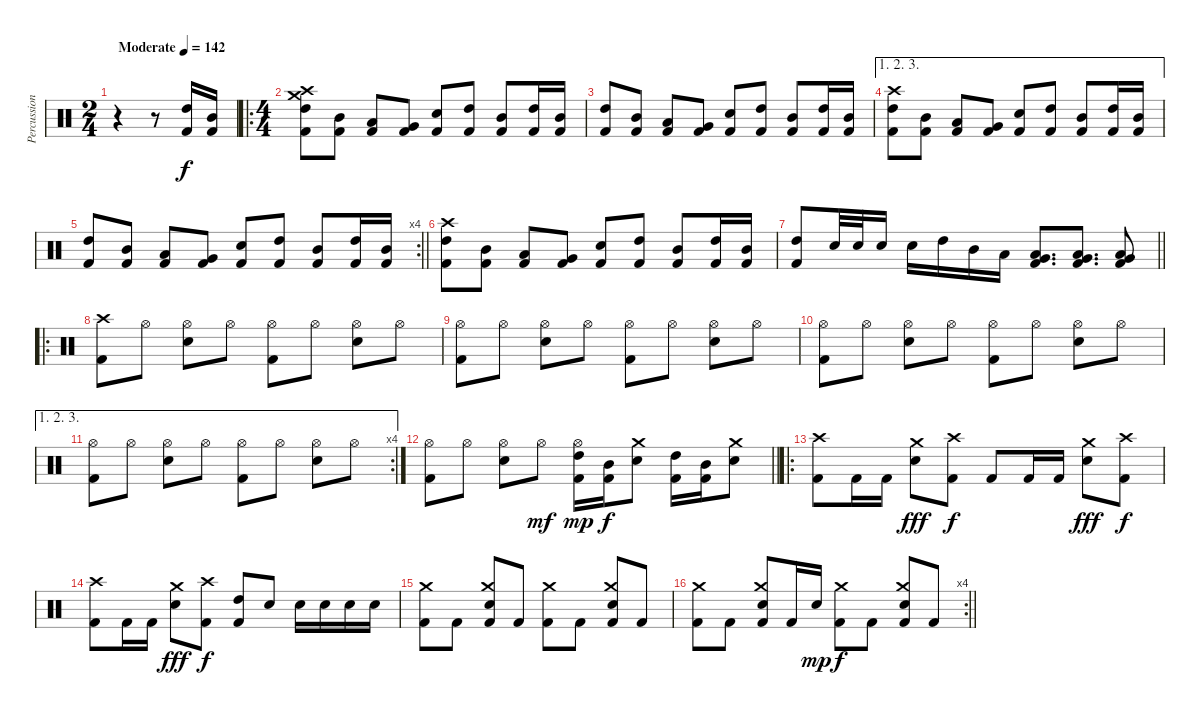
\track ("Percussions" "Percussion") {instrument percussion}
\staff {score}
\articulation defaults
\ts (2 4)
\tempo (142 "Moderate")
\clef neutral
\ks c
r.4{dy f} r.8 ("High Tom (hit)" "Kick (hit) 2").16 ("Mid Tom (hit)" "Kick (hit) 2").16 |
\ro
\ts (4 4)
("Crash high (hit)" "Crash medium (hit)" "High Tom (hit)" "Kick (hit) 2").8 ("Mid Tom (hit)" "Kick (hit) 2").8 ("Low Tom (hit)" "Kick (hit) 2").8 ("Very Low Tom (hit)" "Kick (hit) 2").8 ("Electric Snare (hit)" "Kick (hit) 2").8 ("High Tom (hit)" "Kick (hit) 2").8 ("Mid Tom (hit)" "Kick (hit) 2").8 ("High Tom (hit)" "Kick (hit) 2").16 ("Mid Tom (hit)" "Kick (hit) 2").16 |
("High Tom (hit)" "Kick (hit) 2").8 ("Mid Tom (hit)" "Kick (hit) 2").8 ("Low Tom (hit)" "Kick (hit) 2").8 ("Very Low Tom (hit)" "Kick (hit) 2").8 ("Electric Snare (hit)" "Kick (hit) 2").8 ("High Tom (hit)" "Kick (hit) 2").8 ("Mid Tom (hit)" "Kick (hit) 2").8 ("High Tom (hit)" "Kick (hit) 2").16 ("Mid Tom (hit)" "Kick (hit) 2").16 |
\ae (1 2 3)
("Crash high (hit)" "High Tom (hit)" "Kick (hit) 2").8 ("Mid Tom (hit)" "Kick (hit) 2").8 ("Low Tom (hit)" "Kick (hit) 2").8 ("Very Low Tom (hit)" "Kick (hit) 2").8 ("Electric Snare (hit)" "Kick (hit) 2").8 ("High Tom (hit)" "Kick (hit) 2").8 ("Mid Tom (hit)" "Kick (hit) 2").8 ("High Tom (hit)" "Kick (hit) 2").16 ("Mid Tom (hit)" "Kick (hit) 2").16 |
\rc 4
\barLineRight lightlight
("High Tom (hit)" "Kick (hit) 2").8 ("Mid Tom (hit)" "Kick (hit) 2").8 ("Low Tom (hit)" "Kick (hit) 2").8 ("Very Low Tom (hit)" "Kick (hit) 2").8 ("Electric Snare (hit)" "Kick (hit) 2").8 ("High Tom (hit)" "Kick (hit) 2").8 ("Mid Tom (hit)" "Kick (hit) 2").8 ("High Tom (hit)" "Kick (hit) 2").16 ("Mid Tom (hit)" "Kick (hit) 2").16 |
\section ("" "")
("Crash high (hit)" "High Tom (hit)" "Kick (hit) 2").8 ("Mid Tom (hit)" "Kick (hit) 2").8 ("Low Tom (hit)" "Kick (hit) 2").8 ("Very Low Tom (hit)" "Kick (hit) 2").8 ("Electric Snare (hit)" "Kick (hit) 2").8 ("High Tom (hit)" "Kick (hit) 2").8 ("Mid Tom (hit)" "Kick (hit) 2").8 ("High Tom (hit)" "Kick (hit) 2").16 ("Mid Tom (hit)" "Kick (hit) 2").16 |
\barLineRight lightlight
("High Tom (hit)" "Kick (hit) 2").8 "Electric Snare (hit)".32 "Electric Snare (hit)".32 "Electric Snare (hit)".16 "Electric Snare (hit)".16 "High Tom (hit)".16 "Mid Tom (hit)".16 "Low Tom (hit)".16 ("Low Tom (hit)" "Very Low Tom (hit)" "Kick (hit) 2").8{d} ("Low Tom (hit)" "Very Low Tom (hit)" "Kick (hit) 2").8{d} ("Low Tom (hit)" "Very Low Tom (hit)" "Kick (hit) 2").8 |
\ro
\section ("" "")
("Crash high (hit)" "Kick (hit) 2").8 "Hi-Hat (open)".8 ("Hi-Hat (open)" "Electric Snare (hit)").8 "Hi-Hat (open)".8 ("Hi-Hat (open)" "Kick (hit) 2").8 "Hi-Hat (open)".8 ("Hi-Hat (open)" "Electric Snare (hit)").8 "Hi-Hat (open)".8 |
("Hi-Hat (open)" "Kick (hit) 2").8 "Hi-Hat (open)".8 ("Hi-Hat (open)" "Electric Snare (hit)").8 "Hi-Hat (open)".8 ("Hi-Hat (open)" "Kick (hit) 2").8 "Hi-Hat (open)".8 ("Hi-Hat (open)" "Electric Snare (hit)").8 "Hi-Hat (open)".8 |
("Hi-Hat (open)" "Kick (hit) 2").8 "Hi-Hat (open)".8 ("Hi-Hat (open)" "Electric Snare (hit)").8 "Hi-Hat (open)".8 ("Hi-Hat (open)" "Kick (hit) 2").8 "Hi-Hat (open)".8 ("Hi-Hat (open)" "Electric Snare (hit)").8 "Hi-Hat (open)".8 |
\ae (1 2 3)
\rc 4
("Hi-Hat (open)" "Kick (hit) 2").8 "Hi-Hat (open)".8 ("Hi-Hat (open)" "Electric Snare (hit)").8 "Hi-Hat (open)".8 ("Hi-Hat (open)" "Kick (hit) 2").8 "Hi-Hat (open)".8 ("Hi-Hat (open)" "Electric Snare (hit)").8 "Hi-Hat (open)".8 |
\barLineRight lightlight
("Hi-Hat (open)" "Kick (hit) 2").8 "Hi-Hat (open)".8 ("Hi-Hat (open)" "Electric Snare (hit)").8 "Hi-Hat (open)".8{dy mf} ("Hi-Hat (open)" "High Tom (hit)" "Kick (hit) 2").16{dy mp} ("Mid Tom (hit)" "Kick (hit) 2").16{dy f} ("Crash medium (hit)" "Electric Snare (hit)").8 ("High Tom (hit)" "Kick (hit) 2").16 ("Mid Tom (hit)" "Kick (hit) 2").16 ("Crash medium (hit)" "Electric Snare (hit)").8 |
\ro
\section ("" "")
("Crash high (hit)" "Kick (hit) 2").8 "Kick (hit) 2".16 "Kick (hit) 2".16 ("Crash medium (hit)" "Electric Snare (hit)").8{dy fff} ("Crash high (hit)" "Kick (hit) 2").8{dy f} "Kick (hit) 2".8 "Kick (hit) 2".16 "Kick (hit) 2".16 ("Crash medium (hit)" "Electric Snare (hit)").8{dy fff} ("Crash high (hit)" "Kick (hit) 2").8{dy f} |
("Crash high (hit)" "Kick (hit) 2").8 "Kick (hit) 2".16 "Kick (hit) 2".16 ("Crash medium (hit)" "Electric Snare (hit)").8{dy fff} ("Crash high (hit)" "Kick (hit) 2").8{dy f} ("High Tom (hit)" "Kick (hit) 2").8 "Electric Snare (hit)".8 "Electric Snare (hit)".16 "Electric Snare (hit)".16 "Electric Snare (hit)".16 "Electric Snare (hit)".16 |
("Crash medium (hit)" "Kick (hit) 2").8 "Kick (hit) 2".8 ("Crash medium (hit)" "Electric Snare (hit)" "Kick (hit) 2").8 "Kick (hit) 2".8 ("Crash medium (hit)" "Kick (hit) 2").8 "Kick (hit) 2".8 ("Crash medium (hit)" "Electric Snare (hit)" "Kick (hit) 2").8 "Kick (hit) 2".8 |
\rc 4
\barLineRight lightlight
("Crash medium (hit)" "Kick (hit) 2").8 "Kick (hit) 2".8 ("Crash medium (hit)" "Electric Snare (hit)" "Kick (hit) 2").8 "Kick (hit) 2".16 "Electric Snare (hit)".16{dy mp} ("Crash medium (hit)" "Kick (hit) 2").8{dy f} "Kick (hit) 2".8 ("Crash medium (hit)" "Electric Snare (hit)" "Kick (hit) 2").8 "Kick (hit) 2".8
